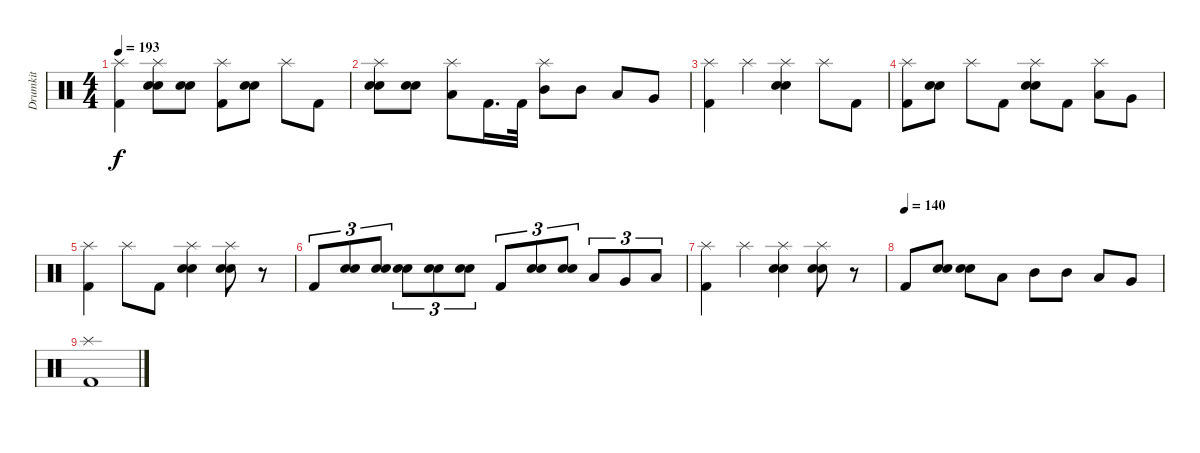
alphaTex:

\track ("Drumkit" "Drumkit") {instrument percussion}
\staff {score}
\articulation defaults
\ts (4 4)
\tempo 193
\clef neutral
\ks c
("Kick (hit) 2" "Splash (hit)").4{dy f} ("Splash (hit)" "Snare (hit) 2" "Electric Snare (hit)").8 ("Snare (hit) 2" "Electric Snare (hit)").8 ("Splash (hit)" "Kick (hit) 2").8 ("Snare (hit) 2" "Electric Snare (hit)").8 "Splash (hit)".8 "Kick (hit) 2".8 |
("Splash (hit)" "Snare (hit) 2" "Electric Snare (hit)").8 ("Snare (hit) 2" "Electric Snare (hit)").8 ("Splash (hit)" "Low Tom (hit)").8 "Kick (hit) 2".16{d} "Kick (hit) 2".32 ("Splash (hit)" "Mid Tom (hit)").8 "Mid Tom (hit)".8 "Low Tom (hit)".8 "Very Low Tom (hit)".8 |
("Kick (hit) 2" "Splash (hit)").4 "Splash (hit)".4 ("Splash (hit)" "Snare (hit) 2" "Electric Snare (hit)").4 "Splash (hit)".8 "Kick (hit) 2".8 |
("Kick (hit) 2" "Splash (hit)").8 ("Snare (hit) 2" "Electric Snare (hit)").8 "Splash (hit)".8 "Kick (hit) 2".8 ("Splash (hit)" "Snare (hit) 2" "Electric Snare (hit)").8 "Kick (hit) 2".8 ("Splash (hit)" "Low Tom (hit)").8 "Very Low Tom (hit)".8 |
("Kick (hit) 2" "Splash (hit)").4 "Splash (hit)".8 "Kick (hit) 2".8 ("Splash (hit)" "Snare (hit) 2" "Electric Snare (hit)").4 ("Splash (hit)" "Snare (hit) 2" "Electric Snare (hit)").8 r.8 |
"Kick (hit) 2".8{tu (3 2)} ("Snare (hit) 2" "Electric Snare (hit)").8{tu (3 2)} ("Snare (hit) 2" "Electric Snare (hit)").8{tu (3 2)} ("Snare (hit) 2" "Electric Snare (hit)").8{tu (3 2)} ("Snare (hit) 2" "Electric Snare (hit)").8{tu (3 2)} ("Snare (hit) 2" "Electric Snare (hit)").8{tu (3 2)} "Kick (hit) 2".8{tu (3 2)} ("Snare (hit) 2" "Electric Snare (hit)").8{tu (3 2)} ("Snare (hit) 2" "Electric Snare (hit)").8{tu (3 2)} "Low Tom (hit)".8{tu (3 2)} "Very Low Tom (hit)".8{tu (3 2)} "Low Floor Tom (hit)".8{tu (3 2)} |
("Kick (hit) 2" "Splash (hit)").4 "Splash (hit)".4 ("Splash (hit)" "Snare (hit) 2" "Electric Snare (hit)").4 ("Splash (hit)" "Snare (hit) 2" "Electric Snare (hit)").8 r.8 |
\tempo (140)
"Kick (hit) 2".8 ("Snare (hit) 2" "Electric Snare (hit)").8 ("Snare (hit) 2" "Electric Snare (hit)").8 "Low Tom (hit)".8 "Mid Tom (hit)".8 "Mid Tom (hit)".8 "Low Tom (hit)".8 "Very Low Tom (hit)".8 |
("Kick (hit) 2" "Splash (hit)").1
